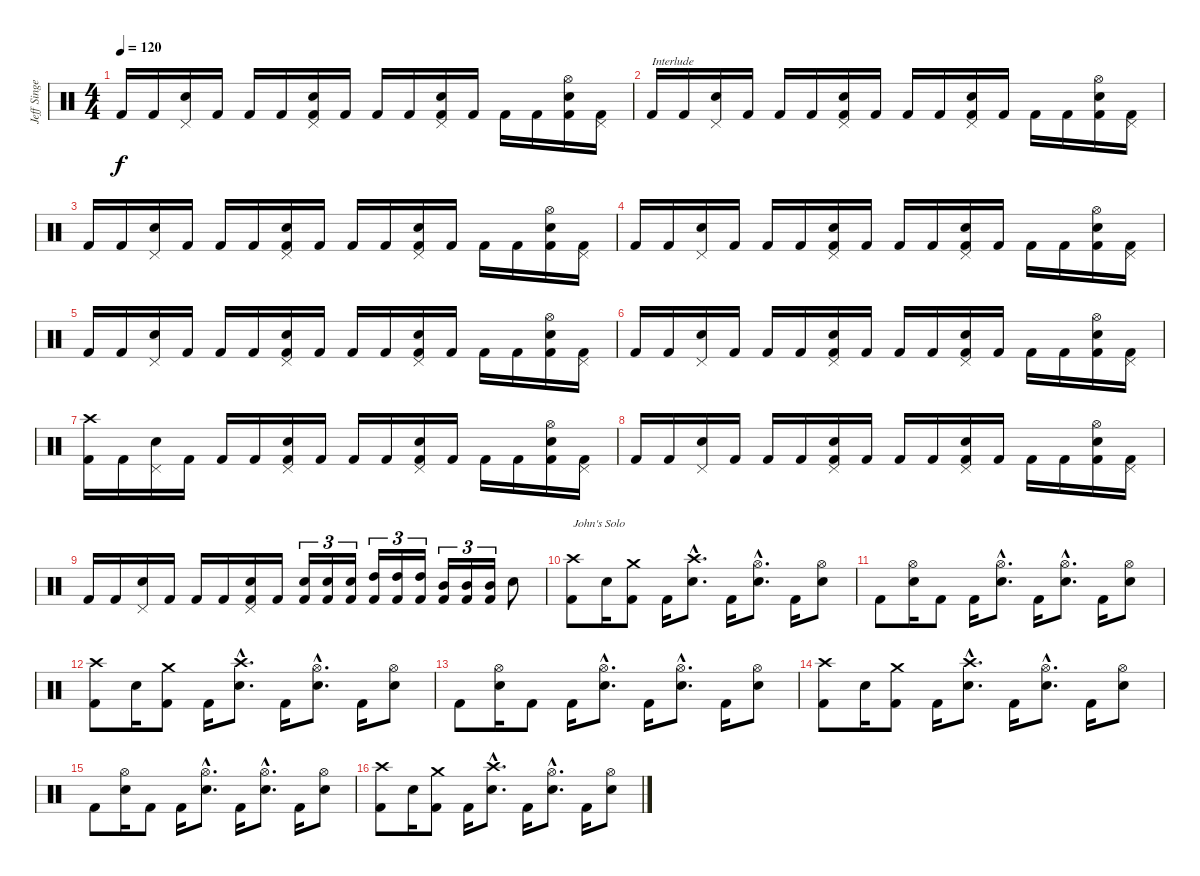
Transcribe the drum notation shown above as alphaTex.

\track ("Jeff Singer" "Jeff Singe") {instrument percussion}
\staff {score}
\articulation defaults
\ts (4 4)
\tempo 120
\clef neutral
\ks c "Kick (hit) 2".16{dy f} "Kick (hit) 2".16
("Pedal Hi-Hat (hit)" "Snare (hit) 2").16 "Kick (hit) 2".16 "Kick (hit) 2".16 "Kick (hit) 2".16 ("Pedal Hi-Hat (hit)" "Snare (hit) 2" "Kick (hit) 2").16 "Kick (hit) 2".16 "Kick (hit) 2".16 "Kick (hit) 2".16 ("Pedal Hi-Hat (hit)" "Snare (hit) 2" "Kick (hit) 2").16 "Kick (hit) 2".16 "Kick (hit) 2".16 "Kick (hit) 2".16 ("Hi-Hat (open)" "Snare (hit) 2" "Kick (hit) 2").16 ("Pedal Hi-Hat (hit)" "Kick (hit) 2").16 |
"Kick (hit) 2".16{txt "Interlude"} "Kick (hit) 2".16 ("Pedal Hi-Hat (hit)" "Snare (hit) 2").16 "Kick (hit) 2".16 "Kick (hit) 2".16 "Kick (hit) 2".16 ("Pedal Hi-Hat (hit)" "Snare (hit) 2" "Kick (hit) 2").16 "Kick (hit) 2".16 "Kick (hit) 2".16 "Kick (hit) 2".16 ("Pedal Hi-Hat (hit)" "Snare (hit) 2" "Kick (hit) 2").16 "Kick (hit) 2".16 "Kick (hit) 2".16 "Kick (hit) 2".16 ("Hi-Hat (open)" "Snare (hit) 2" "Kick (hit) 2").16 ("Pedal Hi-Hat (hit)" "Kick (hit) 2").16 |
"Kick (hit) 2".16 "Kick (hit) 2".16 ("Pedal Hi-Hat (hit)" "Snare (hit) 2").16 "Kick (hit) 2".16 "Kick (hit) 2".16 "Kick (hit) 2".16 ("Pedal Hi-Hat (hit)" "Snare (hit) 2" "Kick (hit) 2").16 "Kick (hit) 2".16 "Kick (hit) 2".16 "Kick (hit) 2".16 ("Pedal Hi-Hat (hit)" "Snare (hit) 2" "Kick (hit) 2").16 "Kick (hit) 2".16 "Kick (hit) 2".16 "Kick (hit) 2".16 ("Hi-Hat (open)" "Snare (hit) 2" "Kick (hit) 2").16 ("Pedal Hi-Hat (hit)" "Kick (hit) 2").16 |
"Kick (hit) 2".16 "Kick (hit) 2".16 ("Pedal Hi-Hat (hit)" "Snare (hit) 2").16 "Kick (hit) 2".16 "Kick (hit) 2".16 "Kick (hit) 2".16 ("Pedal Hi-Hat (hit)" "Snare (hit) 2" "Kick (hit) 2").16 "Kick (hit) 2".16 "Kick (hit) 2".16 "Kick (hit) 2".16 ("Pedal Hi-Hat (hit)" "Snare (hit) 2" "Kick (hit) 2").16 "Kick (hit) 2".16 "Kick (hit) 2".16 "Kick (hit) 2".16 ("Hi-Hat (open)" "Snare (hit) 2" "Kick (hit) 2").16 ("Pedal Hi-Hat (hit)" "Kick (hit) 2").16 |
"Kick (hit) 2".16 "Kick (hit) 2".16 ("Pedal Hi-Hat (hit)" "Snare (hit) 2").16 "Kick (hit) 2".16 "Kick (hit) 2".16 "Kick (hit) 2".16 ("Pedal Hi-Hat (hit)" "Snare (hit) 2" "Kick (hit) 2").16 "Kick (hit) 2".16 "Kick (hit) 2".16 "Kick (hit) 2".16 ("Pedal Hi-Hat (hit)" "Snare (hit) 2" "Kick (hit) 2").16 "Kick (hit) 2".16 "Kick (hit) 2".16 "Kick (hit) 2".16 ("Hi-Hat (open)" "Snare (hit) 2" "Kick (hit) 2").16 ("Pedal Hi-Hat (hit)" "Kick (hit) 2").16 |
"Kick (hit) 2".16 "Kick (hit) 2".16 ("Pedal Hi-Hat (hit)" "Snare (hit) 2").16 "Kick (hit) 2".16 "Kick (hit) 2".16 "Kick (hit) 2".16 ("Pedal Hi-Hat (hit)" "Snare (hit) 2" "Kick (hit) 2").16 "Kick (hit) 2".16 "Kick (hit) 2".16 "Kick (hit) 2".16 ("Pedal Hi-Hat (hit)" "Snare (hit) 2" "Kick (hit) 2").16 "Kick (hit) 2".16 "Kick (hit) 2".16 "Kick (hit) 2".16 ("Hi-Hat (open)" "Snare (hit) 2" "Kick (hit) 2").16 ("Pedal Hi-Hat (hit)" "Kick (hit) 2").16 |
("Crash high (hit)" "Kick (hit) 2").16 "Kick (hit) 2".16 ("Pedal Hi-Hat (hit)" "Snare (hit) 2").16 "Kick (hit) 2".16 "Kick (hit) 2".16 "Kick (hit) 2".16 ("Pedal Hi-Hat (hit)" "Snare (hit) 2" "Kick (hit) 2").16 "Kick (hit) 2".16 "Kick (hit) 2".16 "Kick (hit) 2".16 ("Pedal Hi-Hat (hit)" "Snare (hit) 2" "Kick (hit) 2").16 "Kick (hit) 2".16 "Kick (hit) 2".16 "Kick (hit) 2".16 ("Hi-Hat (open)" "Snare (hit) 2" "Kick (hit) 2").16 ("Pedal Hi-Hat (hit)" "Kick (hit) 2").16 |
"Kick (hit) 2".16 "Kick (hit) 2".16 ("Pedal Hi-Hat (hit)" "Snare (hit) 2").16 "Kick (hit) 2".16 "Kick (hit) 2".16 "Kick (hit) 2".16 ("Pedal Hi-Hat (hit)" "Snare (hit) 2" "Kick (hit) 2").16 "Kick (hit) 2".16 "Kick (hit) 2".16 "Kick (hit) 2".16 ("Pedal Hi-Hat (hit)" "Snare (hit) 2" "Kick (hit) 2").16 "Kick (hit) 2".16 "Kick (hit) 2".16 "Kick (hit) 2".16 ("Hi-Hat (open)" "Snare (hit) 2" "Kick (hit) 2").16 ("Pedal Hi-Hat (hit)" "Kick (hit) 2").16 |
"Kick (hit) 2".16 "Kick (hit) 2".16 ("Pedal Hi-Hat (hit)" "Snare (hit) 2").16 "Kick (hit) 2".16 "Kick (hit) 2".16 "Kick (hit) 2".16 ("Pedal Hi-Hat (hit)" "Snare (hit) 2" "Kick (hit) 2").16 "Kick (hit) 2".16 ("Snare (hit) 2" "Kick (hit) 2").16{tu (3 2)} ("Snare (hit) 2" "Kick (hit) 2").16{tu (3 2)} ("Snare (hit) 2" "Kick (hit) 2").16{tu (3 2)} ("High Tom (hit)" "Kick (hit) 2").16{tu (3 2)} ("High Tom (hit)" "Kick (hit) 2").16{tu (3 2)} ("High Tom (hit)" "Kick (hit) 2").16{tu (3 2)} ("Mid Tom (hit)" "Kick (hit) 2").16{tu (3 2)} ("Mid Tom (hit)" "Kick (hit) 2").16{tu (3 2)} ("Mid Tom (hit)" "Kick (hit) 2").16{tu (3 2)} "Snare (hit) 2".8 |
("Crash high (hit)" "Kick (hit) 2").8{txt "John's Solo"} "Snare (hit) 2".16 ("Crash medium (hit)" "Kick (hit) 2").8 "Kick (hit) 2".16 ("Crash high (hit)"{hac} "Snare (hit) 2"{hac}).8{d} "Kick (hit) 2".16 ("Hi-Hat (open)"{hac} "Snare (hit) 2"{hac}).8{d} "Kick (hit) 2".16 ("Hi-Hat (open)" "Snare (hit) 2").8 |
"Kick (hit) 2".8 ("Hi-Hat (open)" "Snare (hit) 2").16 "Kick (hit) 2".8 "Kick (hit) 2".16 ("Hi-Hat (open)"{hac} "Snare (hit) 2"{hac}).8{d} "Kick (hit) 2".16 ("Hi-Hat (open)"{hac} "Snare (hit) 2"{hac}).8{d} "Kick (hit) 2".16 ("Hi-Hat (open)" "Snare (hit) 2").8 |
("Crash high (hit)" "Kick (hit) 2").8 "Snare (hit) 2".16 ("Crash medium (hit)" "Kick (hit) 2").8 "Kick (hit) 2".16 ("Crash high (hit)"{hac} "Snare (hit) 2"{hac}).8{d} "Kick (hit) 2".16 ("Hi-Hat (open)"{hac} "Snare (hit) 2"{hac}).8{d} "Kick (hit) 2".16 ("Hi-Hat (open)" "Snare (hit) 2").8 |
"Kick (hit) 2".8 ("Hi-Hat (open)" "Snare (hit) 2").16 "Kick (hit) 2".8 "Kick (hit) 2".16 ("Hi-Hat (open)"{hac} "Snare (hit) 2"{hac}).8{d} "Kick (hit) 2".16 ("Hi-Hat (open)"{hac} "Snare (hit) 2"{hac}).8{d} "Kick (hit) 2".16 ("Hi-Hat (open)" "Snare (hit) 2").8 |
("Crash high (hit)" "Kick (hit) 2").8 "Snare (hit) 2".16 ("Crash medium (hit)" "Kick (hit) 2").8 "Kick (hit) 2".16 ("Crash high (hit)"{hac} "Snare (hit) 2"{hac}).8{d} "Kick (hit) 2".16 ("Hi-Hat (open)"{hac} "Snare (hit) 2"{hac}).8{d} "Kick (hit) 2".16 ("Hi-Hat (open)" "Snare (hit) 2").8 |
"Kick (hit) 2".8 ("Hi-Hat (open)" "Snare (hit) 2").16 "Kick (hit) 2".8 "Kick (hit) 2".16 ("Hi-Hat (open)"{hac} "Snare (hit) 2"{hac}).8{d} "Kick (hit) 2".16 ("Hi-Hat (open)"{hac} "Snare (hit) 2"{hac}).8{d} "Kick (hit) 2".16 ("Hi-Hat (open)" "Snare (hit) 2").8 |
("Crash high (hit)" "Kick (hit) 2").8 "Snare (hit) 2".16 ("Crash medium (hit)" "Kick (hit) 2").8 "Kick (hit) 2".16 ("Crash high (hit)"{hac} "Snare (hit) 2"{hac}).8{d} "Kick (hit) 2".16 ("Hi-Hat (open)"{hac} "Snare (hit) 2"{hac}).8{d} "Kick (hit) 2".16 ("Hi-Hat (open)" "Snare (hit) 2").8
